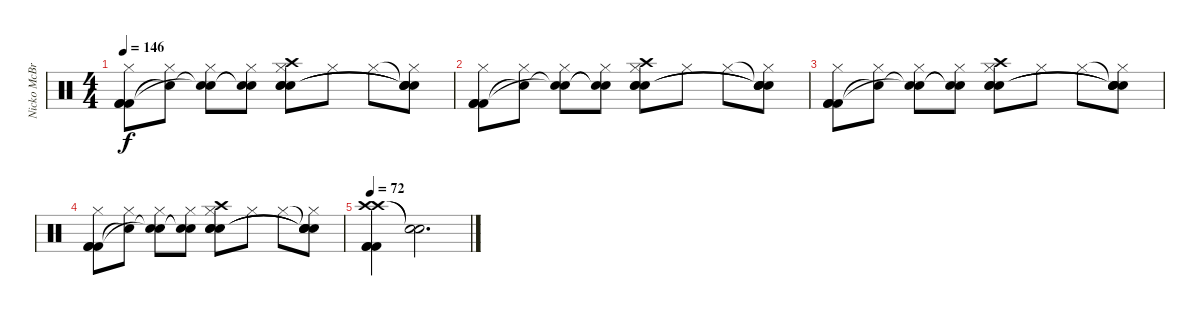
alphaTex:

\track ("Nicko McBrain" "Nicko McBr") {instrument percussion}
\staff {score}
\articulation defaults
\ts (4 4)
\tempo 146
\clef neutral
\ks c
("Hi-Hat (closed)" "Kick (hit) 2" "Kick (hit) 2" "Kick (hit) 2").8{dy f} ("Hi-Hat (closed)" "Snare (hit)"{t}).8 ("Hi-Hat (closed)" "Snare (hit)"{t} "Snare (hit)"{t}).8 ("Hi-Hat (closed)" "Snare (hit)"{t} "Snare (hit)"{t}).8 ("Crash high (hit)" "Hi-Hat (closed)" "Snare (hit) 2" "Snare (hit) 2" "Snare (hit) 2").8 "Hi-Hat (closed)".8 "Hi-Hat (closed)".8 ("Snare (hit)"{t} "Hi-Hat (closed)" "Snare (hit)"{t} "Snare (hit)"{t} "Snare (hit)"{t}).8 |
("Hi-Hat (closed)" "Kick (hit) 2" "Kick (hit) 2" "Kick (hit) 2").8 ("Hi-Hat (closed)" "Snare (hit)"{t}).8 ("Hi-Hat (closed)" "Snare (hit)"{t} "Snare (hit)"{t}).8 ("Hi-Hat (closed)" "Snare (hit)"{t} "Snare (hit)"{t}).8 ("Crash high (hit)" "Hi-Hat (closed)" "Snare (hit) 2" "Snare (hit) 2" "Snare (hit) 2").8 "Hi-Hat (closed)".8 "Hi-Hat (closed)".8 ("Snare (hit)"{t} "Hi-Hat (closed)" "Snare (hit)"{t} "Snare (hit)"{t} "Snare (hit)"{t}).8 |
("Hi-Hat (closed)" "Kick (hit) 2" "Kick (hit) 2" "Kick (hit) 2").8 ("Hi-Hat (closed)" "Snare (hit)"{t}).8 ("Hi-Hat (closed)" "Snare (hit)"{t} "Snare (hit)"{t}).8 ("Hi-Hat (closed)" "Snare (hit)"{t} "Snare (hit)"{t}).8 ("Crash high (hit)" "Hi-Hat (closed)" "Snare (hit) 2" "Snare (hit) 2" "Snare (hit) 2").8 "Hi-Hat (closed)".8 "Hi-Hat (closed)".8 ("Snare (hit)"{t} "Hi-Hat (closed)" "Snare (hit)"{t} "Snare (hit)"{t} "Snare (hit)"{t}).8 |
("Hi-Hat (closed)" "Kick (hit) 2" "Kick (hit) 2" "Kick (hit) 2").8 ("Hi-Hat (closed)" "Snare (hit)"{t}).8 ("Hi-Hat (closed)" "Snare (hit)"{t} "Snare (hit)"{t}).8 ("Hi-Hat (closed)" "Snare (hit)"{t} "Snare (hit)"{t}).8 ("Crash high (hit)" "Hi-Hat (closed)" "Snare (hit) 2" "Snare (hit) 2" "Snare (hit) 2").8 "Hi-Hat (closed)".8 "Hi-Hat (closed)".8 ("Snare (hit)"{t} "Hi-Hat (closed)" "Snare (hit)"{t} "Snare (hit)"{t} "Snare (hit)"{t}).8 |
\tempo 72
("Crash high (hit)" "Crash high (hit)" "Kick (hit) 2" "Kick (hit) 2" "Kick (hit) 2").4 ("Snare (hit)"{t} "Snare (hit)"{t}).2{d}
